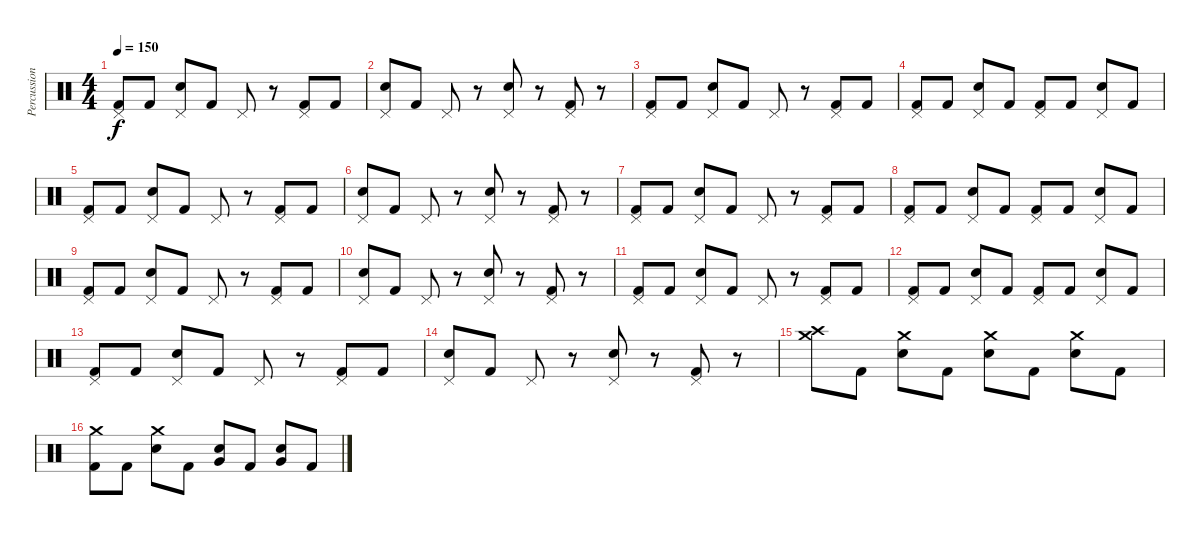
\track ("Percussion" "Percussion") {instrument percussion}
\staff {score}
\articulation defaults
\ts (4 4)
\tempo 150
\clef neutral
\ks c
("Pedal Hi-Hat (hit)" "Kick (hit) 2").8{dy f} "Kick (hit) 2".8 ("Pedal Hi-Hat (hit)" "Electric Snare (hit)").8 "Kick (hit) 2".8 "Pedal Hi-Hat (hit)".8 r.8 ("Pedal Hi-Hat (hit)" "Kick (hit) 2").8 "Kick (hit) 2".8 |
("Pedal Hi-Hat (hit)" "Electric Snare (hit)").8 "Kick (hit) 2".8 "Pedal Hi-Hat (hit)".8 r.8 ("Pedal Hi-Hat (hit)" "Electric Snare (hit)").8 r.8 ("Pedal Hi-Hat (hit)" "Kick (hit) 2").8 r.8 |
("Pedal Hi-Hat (hit)" "Kick (hit) 2").8 "Kick (hit) 2".8 ("Pedal Hi-Hat (hit)" "Electric Snare (hit)").8 "Kick (hit) 2".8 "Pedal Hi-Hat (hit)".8 r.8 ("Pedal Hi-Hat (hit)" "Kick (hit) 2").8 "Kick (hit) 2".8 |
("Pedal Hi-Hat (hit)" "Kick (hit) 2").8 "Kick (hit) 2".8 ("Pedal Hi-Hat (hit)" "Electric Snare (hit)").8 "Kick (hit) 2".8 ("Pedal Hi-Hat (hit)" "Kick (hit) 2").8 "Kick (hit) 2".8 ("Pedal Hi-Hat (hit)" "Electric Snare (hit)").8 "Kick (hit) 2".8 |
("Pedal Hi-Hat (hit)" "Kick (hit) 2").8 "Kick (hit) 2".8 ("Pedal Hi-Hat (hit)" "Electric Snare (hit)").8 "Kick (hit) 2".8 "Pedal Hi-Hat (hit)".8 r.8 ("Pedal Hi-Hat (hit)" "Kick (hit) 2").8 "Kick (hit) 2".8 |
("Pedal Hi-Hat (hit)" "Electric Snare (hit)").8 "Kick (hit) 2".8 "Pedal Hi-Hat (hit)".8 r.8 ("Pedal Hi-Hat (hit)" "Electric Snare (hit)").8 r.8 ("Pedal Hi-Hat (hit)" "Kick (hit) 2").8 r.8 |
("Pedal Hi-Hat (hit)" "Kick (hit) 2").8 "Kick (hit) 2".8 ("Pedal Hi-Hat (hit)" "Electric Snare (hit)").8 "Kick (hit) 2".8 "Pedal Hi-Hat (hit)".8 r.8 ("Pedal Hi-Hat (hit)" "Kick (hit) 2").8 "Kick (hit) 2".8 |
("Pedal Hi-Hat (hit)" "Kick (hit) 2").8 "Kick (hit) 2".8 ("Pedal Hi-Hat (hit)" "Electric Snare (hit)").8 "Kick (hit) 2".8 ("Pedal Hi-Hat (hit)" "Kick (hit) 2").8 "Kick (hit) 2".8 ("Pedal Hi-Hat (hit)" "Electric Snare (hit)").8 "Kick (hit) 2".8 |
("Pedal Hi-Hat (hit)" "Kick (hit) 2").8 "Kick (hit) 2".8 ("Pedal Hi-Hat (hit)" "Electric Snare (hit)").8 "Kick (hit) 2".8 "Pedal Hi-Hat (hit)".8 r.8 ("Pedal Hi-Hat (hit)" "Kick (hit) 2").8 "Kick (hit) 2".8 |
("Pedal Hi-Hat (hit)" "Electric Snare (hit)").8 "Kick (hit) 2".8 "Pedal Hi-Hat (hit)".8 r.8 ("Pedal Hi-Hat (hit)" "Electric Snare (hit)").8 r.8 ("Pedal Hi-Hat (hit)" "Kick (hit) 2").8 r.8 |
("Pedal Hi-Hat (hit)" "Kick (hit) 2").8 "Kick (hit) 2".8 ("Pedal Hi-Hat (hit)" "Electric Snare (hit)").8 "Kick (hit) 2".8 "Pedal Hi-Hat (hit)".8 r.8 ("Pedal Hi-Hat (hit)" "Kick (hit) 2").8 "Kick (hit) 2".8 |
("Pedal Hi-Hat (hit)" "Kick (hit) 2").8 "Kick (hit) 2".8 ("Pedal Hi-Hat (hit)" "Electric Snare (hit)").8 "Kick (hit) 2".8 ("Pedal Hi-Hat (hit)" "Kick (hit) 2").8 "Kick (hit) 2".8 ("Pedal Hi-Hat (hit)" "Electric Snare (hit)").8 "Kick (hit) 2".8 |
("Pedal Hi-Hat (hit)" "Kick (hit) 2").8 "Kick (hit) 2".8 ("Pedal Hi-Hat (hit)" "Electric Snare (hit)").8 "Kick (hit) 2".8 "Pedal Hi-Hat (hit)".8 r.8 ("Pedal Hi-Hat (hit)" "Kick (hit) 2").8 "Kick (hit) 2".8 |
("Pedal Hi-Hat (hit)" "Electric Snare (hit)").8 "Kick (hit) 2".8 "Pedal Hi-Hat (hit)".8 r.8 ("Pedal Hi-Hat (hit)" "Electric Snare (hit)").8 r.8 ("Pedal Hi-Hat (hit)" "Kick (hit) 2").8 r.8 |
("Crash medium (hit)" "Crash high (hit)").8 "Kick (hit) 2".8 ("Crash medium (hit)" "Electric Snare (hit)").8 "Kick (hit) 2".8 ("Crash medium (hit)" "Electric Snare (hit)").8 "Kick (hit) 2".8 ("Crash medium (hit)" "Electric Snare (hit)").8 "Kick (hit) 2".8 |
("Crash medium (hit)" "Kick (hit) 2").8 "Kick (hit) 2".8 ("Crash medium (hit)" "Electric Snare (hit)").8 "Kick (hit) 2".8 ("Very Low Tom (hit)" "Electric Snare (hit)").8 "Kick (hit) 2".8 ("Very Low Tom (hit)" "Electric Snare (hit)").8 "Kick (hit) 2".8
